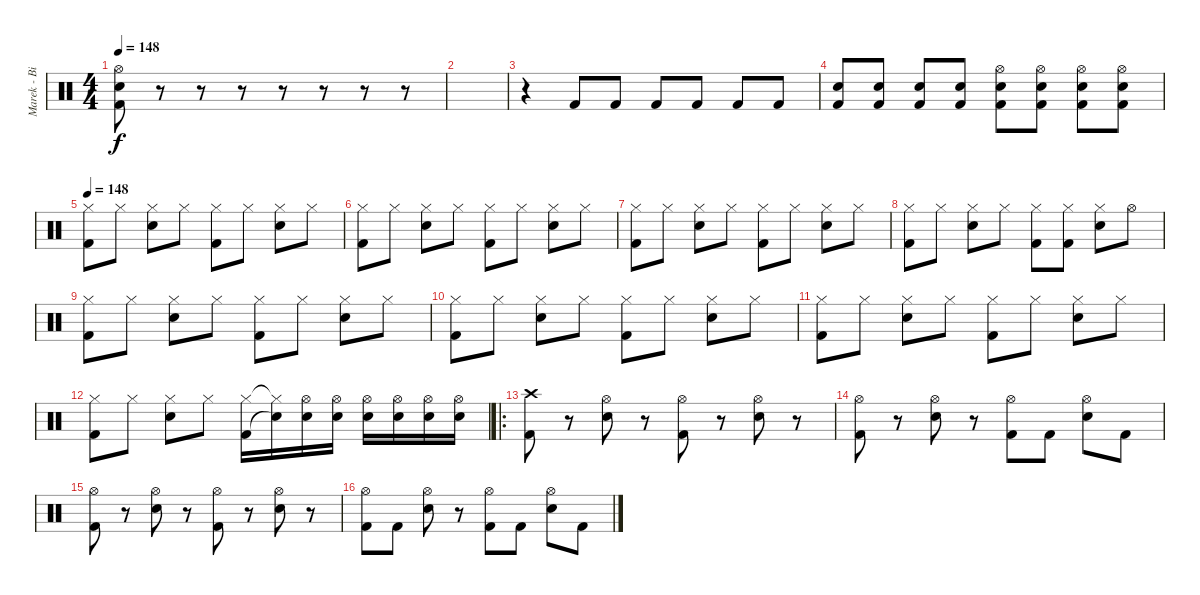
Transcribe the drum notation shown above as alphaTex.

\track ("Marek - Bicie" "Marek - Bi") {instrument percussion}
\staff {score}
\articulation defaults
\ts (4 4)
\tempo 148
\clef neutral
\ks c
("Hi-Hat (open)" "Electric Snare (hit)" "Kick (hit) 2").8{dy f} r.8 r.8 r.8 r.8 r.8 r.8 r.8 |
|
r.4 "Kick (hit) 2".8 "Kick (hit) 2".8 "Kick (hit) 2".8 "Kick (hit) 2".8 "Kick (hit) 2".8 "Kick (hit) 2".8 |
("Electric Snare (hit)" "Kick (hit) 2").8 ("Electric Snare (hit)" "Kick (hit) 2").8 ("Electric Snare (hit)" "Kick (hit) 2").8 ("Electric Snare (hit)" "Kick (hit) 2").8 ("Hi-Hat (open)" "Electric Snare (hit)" "Kick (hit) 2").8 ("Hi-Hat (open)" "Electric Snare (hit)" "Kick (hit) 2").8 ("Hi-Hat (open)" "Electric Snare (hit)" "Kick (hit) 2").8 ("Hi-Hat (open)" "Electric Snare (hit)" "Kick (hit) 2").8 |
\tempo 148
("Hi-Hat (closed)" "Kick (hit) 2").8 "Hi-Hat (closed)".8 ("Hi-Hat (closed)" "Electric Snare (hit)").8 "Hi-Hat (closed)".8 ("Hi-Hat (closed)" "Kick (hit) 2").8 "Hi-Hat (closed)".8 ("Hi-Hat (closed)" "Electric Snare (hit)").8 "Hi-Hat (closed)".8 |
("Hi-Hat (closed)" "Kick (hit) 2").8 "Hi-Hat (closed)".8 ("Hi-Hat (closed)" "Electric Snare (hit)").8 "Hi-Hat (closed)".8 ("Hi-Hat (closed)" "Kick (hit) 2").8 "Hi-Hat (closed)".8 ("Hi-Hat (closed)" "Electric Snare (hit)").8 "Hi-Hat (closed)".8 |
("Hi-Hat (closed)" "Kick (hit) 2").8 "Hi-Hat (closed)".8 ("Hi-Hat (closed)" "Electric Snare (hit)").8 "Hi-Hat (closed)".8 ("Hi-Hat (closed)" "Kick (hit) 2").8 "Hi-Hat (closed)".8 ("Hi-Hat (closed)" "Electric Snare (hit)").8 "Hi-Hat (closed)".8 |
("Hi-Hat (closed)" "Kick (hit) 2").8 "Hi-Hat (closed)".8 ("Hi-Hat (closed)" "Electric Snare (hit)").8 "Hi-Hat (closed)".8 ("Hi-Hat (closed)" "Kick (hit) 2").8 ("Hi-Hat (closed)" "Kick (hit) 2").8 ("Hi-Hat (closed)" "Electric Snare (hit)").8 "Hi-Hat (open)".8 |
("Hi-Hat (closed)" "Kick (hit) 2").8 "Hi-Hat (closed)".8 ("Hi-Hat (closed)" "Electric Snare (hit)").8 "Hi-Hat (closed)".8 ("Hi-Hat (closed)" "Kick (hit) 2").8 "Hi-Hat (closed)".8 ("Hi-Hat (closed)" "Electric Snare (hit)").8 "Hi-Hat (closed)".8 |
("Hi-Hat (closed)" "Kick (hit) 2").8 "Hi-Hat (closed)".8 ("Hi-Hat (closed)" "Electric Snare (hit)").8 "Hi-Hat (closed)".8 ("Hi-Hat (closed)" "Kick (hit) 2").8 "Hi-Hat (closed)".8 ("Hi-Hat (closed)" "Electric Snare (hit)").8 "Hi-Hat (closed)".8 |
("Hi-Hat (closed)" "Kick (hit) 2").8 "Hi-Hat (closed)".8 ("Hi-Hat (closed)" "Electric Snare (hit)").8 "Hi-Hat (closed)".8 ("Hi-Hat (closed)" "Kick (hit) 2").8 "Hi-Hat (closed)".8 ("Hi-Hat (closed)" "Electric Snare (hit)").8 "Hi-Hat (closed)".8 |
("Hi-Hat (closed)" "Kick (hit) 2").8 "Hi-Hat (closed)".8 ("Hi-Hat (closed)" "Electric Snare (hit)").8 "Hi-Hat (closed)".8 ("Hi-Hat (closed)" "Kick (hit) 2").16 ("Hi-Hat (closed)"{t} "Electric Snare (hit)"{t}).16 ("Hi-Hat (open)" "Electric Snare (hit)").16 ("Hi-Hat (open)" "Electric Snare (hit)").16 ("Hi-Hat (open)" "Electric Snare (hit)").16 ("Hi-Hat (open)" "Electric Snare (hit)").16 ("Hi-Hat (open)" "Electric Snare (hit)").16 ("Hi-Hat (open)" "Electric Snare (hit)").16 |
\ro
("Crash high (hit)" "Kick (hit) 2").8 r.8 ("Hi-Hat (open)" "Electric Snare (hit)").8 r.8 ("Hi-Hat (open)" "Kick (hit) 2").8 r.8 ("Hi-Hat (open)" "Electric Snare (hit)").8 r.8 |
("Hi-Hat (open)" "Kick (hit) 2").8 r.8 ("Hi-Hat (open)" "Electric Snare (hit)").8 r.8 ("Hi-Hat (open)" "Kick (hit) 2").8 "Kick (hit) 2".8 ("Hi-Hat (open)" "Electric Snare (hit)").8 "Kick (hit) 2".8 |
("Hi-Hat (open)" "Kick (hit) 2").8 r.8 ("Hi-Hat (open)" "Electric Snare (hit)").8 r.8 ("Hi-Hat (open)" "Kick (hit) 2").8 r.8 ("Hi-Hat (open)" "Electric Snare (hit)").8 r.8 |
("Hi-Hat (open)" "Kick (hit) 2").8 "Kick (hit) 2".8 ("Hi-Hat (open)" "Electric Snare (hit)").8 r.8 ("Hi-Hat (open)" "Kick (hit) 2").8 "Kick (hit) 2".8 ("Hi-Hat (open)" "Electric Snare (hit)").8 "Kick (hit) 2".8
